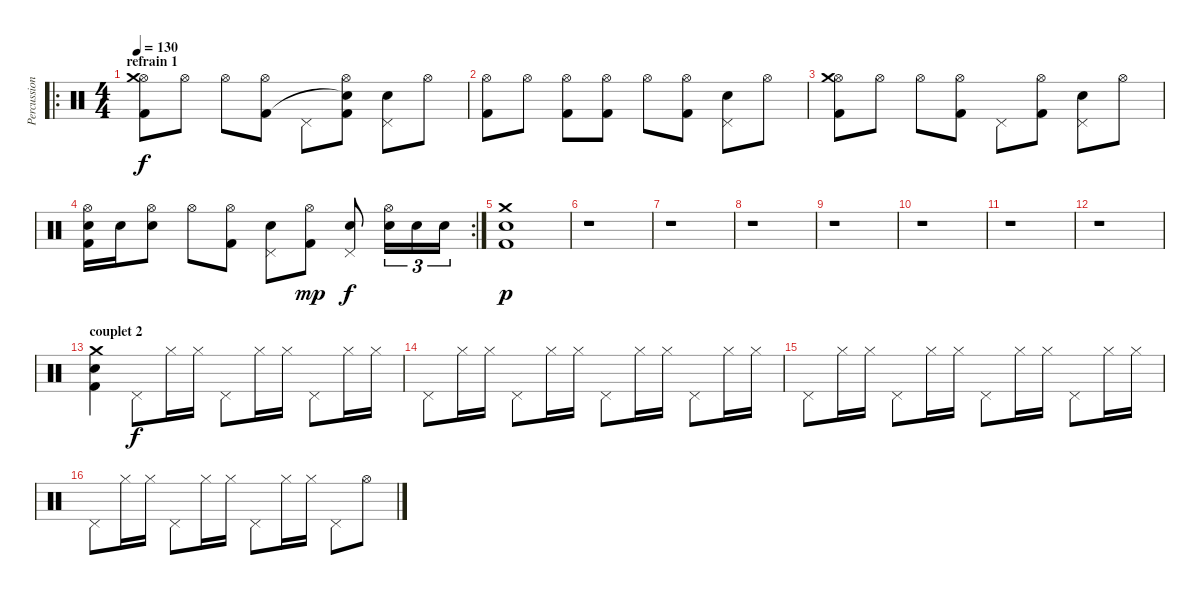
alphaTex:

\track ("Percussions" "Percussion") {instrument percussion}
\staff {score}
\articulation defaults
\ro
\ts (4 4)
\section ("" "refrain 1")
\tempo 130
\clef neutral
\ks c
("Hi-Hat (open)" "Crash medium (hit)" "Kick (hit) 2").8{dy f} "Hi-Hat (open)".8 "Hi-Hat (open)".8 ("Hi-Hat (open)" "Kick (hit) 2").8 "Pedal Hi-Hat (hit)".8 ("Hi-Hat (open)" "Snare (hit)"{t} "Kick (hit) 2").8 ("Pedal Hi-Hat (hit)" "Electric Snare (hit)").8 "Hi-Hat (open)".8 |
("Hi-Hat (open)" "Kick (hit) 2").8 "Hi-Hat (open)".8 ("Hi-Hat (open)" "Kick (hit) 2").8 ("Hi-Hat (open)" "Kick (hit) 2").8 "Hi-Hat (open)".8 ("Hi-Hat (open)" "Kick (hit) 2").8 ("Pedal Hi-Hat (hit)" "Electric Snare (hit)").8 "Hi-Hat (open)".8 |
("Hi-Hat (open)" "Crash medium (hit)" "Kick (hit) 2").8 "Hi-Hat (open)".8 "Hi-Hat (open)".8 ("Hi-Hat (open)" "Kick (hit) 2").8 "Pedal Hi-Hat (hit)".8 ("Hi-Hat (open)" "Kick (hit) 2").8 ("Pedal Hi-Hat (hit)" "Electric Snare (hit)").8 "Hi-Hat (open)".8 |
\rc 2
("Hi-Hat (open)" "Electric Snare (hit)" "Kick (hit) 2").16 "Electric Snare (hit)".16 ("Hi-Hat (open)" "Electric Snare (hit)").8 "Hi-Hat (open)".8 ("Hi-Hat (open)" "Kick (hit) 2").8 ("Pedal Hi-Hat (hit)" "Electric Snare (hit)").8 ("Hi-Hat (open)" "Kick (hit) 2").8{dy mp} ("Pedal Hi-Hat (hit)" "Electric Snare (hit)").8{dy f} ("Hi-Hat (open)" "Electric Snare (hit)").16{tu (3 2)} "Electric Snare (hit)".16{tu (3 2)} "Electric Snare (hit)".16{tu (3 2)} |
("Crash medium (hit)" "Electric Snare (hit)" "Kick (hit) 2").1{dy p} |
r.1 |
r.1 |
r.1 |
r.1 |
r.1 |
r.1 |
r.1 |
\section ("" "couplet 2")
("Crash medium (hit)" "Electric Snare (hit)" "Kick (hit) 2").4 "Pedal Hi-Hat (hit)".8{dy f} "Hi-Hat (closed)".16 "Hi-Hat (closed)".16 "Pedal Hi-Hat (hit)".8 "Hi-Hat (closed)".16 "Hi-Hat (closed)".16 "Pedal Hi-Hat (hit)".8 "Hi-Hat (closed)".16 "Hi-Hat (closed)".16 |
"Pedal Hi-Hat (hit)".8 "Hi-Hat (closed)".16 "Hi-Hat (closed)".16 "Pedal Hi-Hat (hit)".8 "Hi-Hat (closed)".16 "Hi-Hat (closed)".16 "Pedal Hi-Hat (hit)".8 "Hi-Hat (closed)".16 "Hi-Hat (closed)".16 "Pedal Hi-Hat (hit)".8 "Hi-Hat (closed)".16 "Hi-Hat (closed)".16 |
"Pedal Hi-Hat (hit)".8 "Hi-Hat (closed)".16 "Hi-Hat (closed)".16 "Pedal Hi-Hat (hit)".8 "Hi-Hat (closed)".16 "Hi-Hat (closed)".16 "Pedal Hi-Hat (hit)".8 "Hi-Hat (closed)".16 "Hi-Hat (closed)".16 "Pedal Hi-Hat (hit)".8 "Hi-Hat (closed)".16 "Hi-Hat (closed)".16 |
"Pedal Hi-Hat (hit)".8 "Hi-Hat (closed)".16 "Hi-Hat (closed)".16 "Pedal Hi-Hat (hit)".8 "Hi-Hat (closed)".16 "Hi-Hat (closed)".16 "Pedal Hi-Hat (hit)".8 "Hi-Hat (closed)".16 "Hi-Hat (closed)".16 "Pedal Hi-Hat (hit)".8 "Hi-Hat (open)".8
